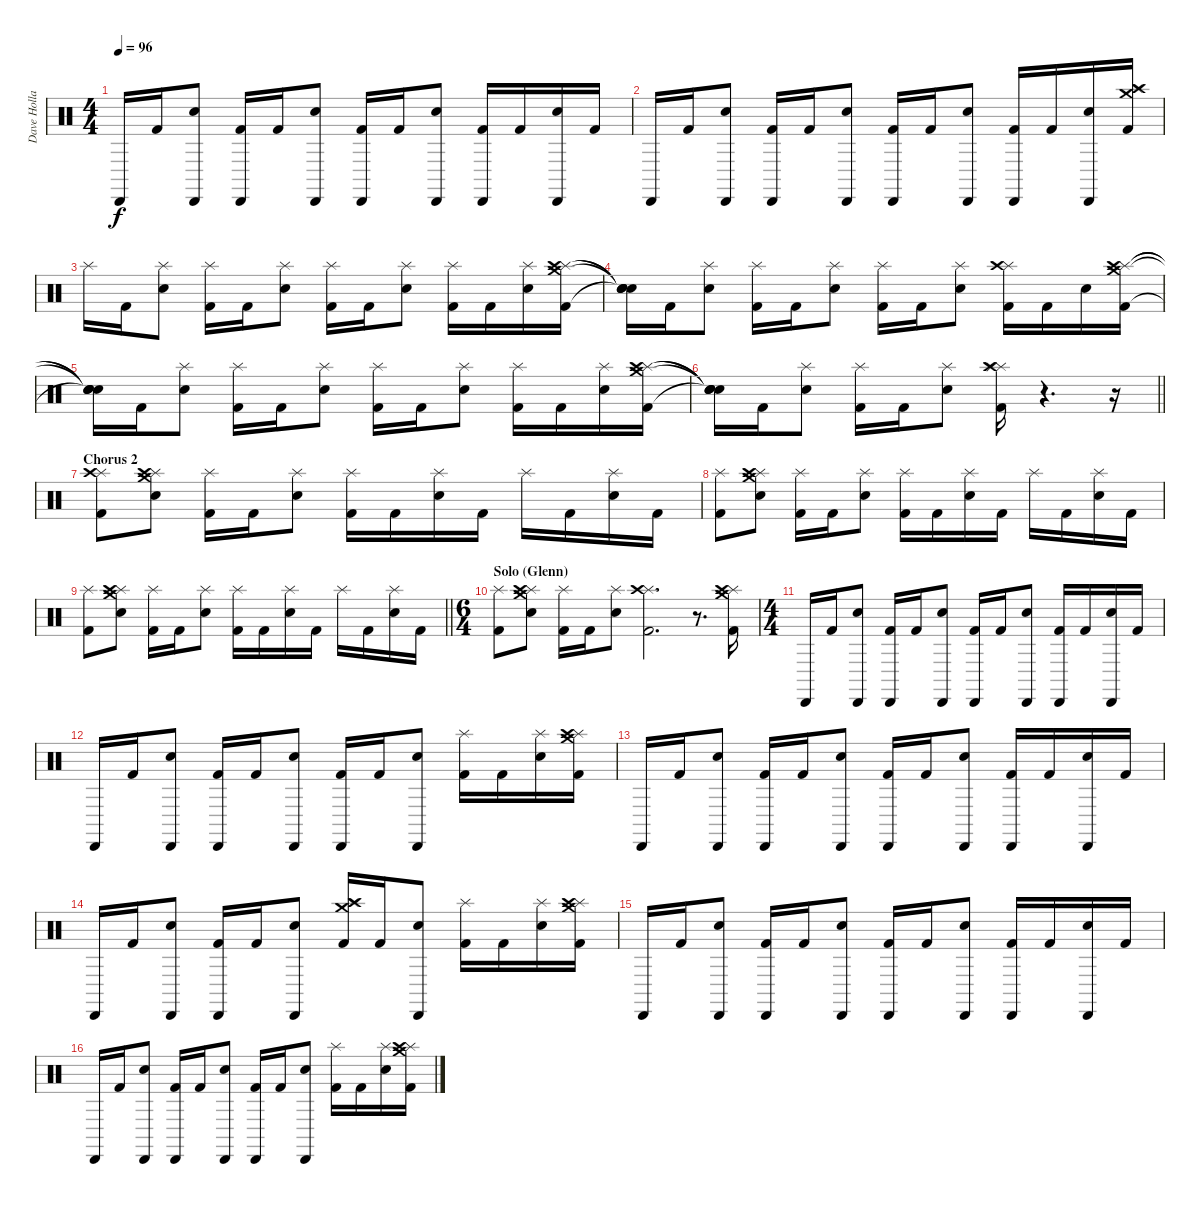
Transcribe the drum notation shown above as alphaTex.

\track ("Dave Holland" "Dave Holla") {instrument percussion}
\staff {score}
\articulation defaults
\ts (4 4)
\tempo 96
\clef neutral
\ks c "Cabasa (hit)".16{dy f} "Kick (hit) 2".16
("Cabasa (hit)" "Snare (hit) 2").8 ("Cabasa (hit)" "Kick (hit) 2").16 "Kick (hit) 2".16 ("Cabasa (hit)" "Snare (hit) 2").8 ("Cabasa (hit)" "Kick (hit) 2").16 "Kick (hit) 2".16 ("Cabasa (hit)" "Snare (hit) 2").8 ("Cabasa (hit)" "Kick (hit) 2").16 "Kick (hit) 2".16 ("Cabasa (hit)" "Snare (hit) 2").16 "Kick (hit) 2".16 |
"Cabasa (hit)".16 "Kick (hit) 2".16 ("Cabasa (hit)" "Snare (hit) 2").8 ("Cabasa (hit)" "Kick (hit) 2").16 "Kick (hit) 2".16 ("Cabasa (hit)" "Snare (hit) 2").8 ("Cabasa (hit)" "Kick (hit) 2").16 "Kick (hit) 2".16 ("Cabasa (hit)" "Snare (hit) 2").8 ("Cabasa (hit)" "Kick (hit) 2").16 "Kick (hit) 2".16 ("Cabasa (hit)" "Snare (hit) 2").16 ("Crash medium (hit)" "Splash (hit)" "Crash high (hit)" "Kick (hit) 2").16 |
"Splash (hit)".16 "Kick (hit) 2".16 ("Splash (hit)" "Snare (hit) 2").8 ("Splash (hit)" "Kick (hit) 2").16 "Kick (hit) 2".16 ("Splash (hit)" "Snare (hit) 2").8 ("Splash (hit)" "Kick (hit) 2").16 "Kick (hit) 2".16 ("Splash (hit)" "Snare (hit) 2").8 ("Splash (hit)" "Kick (hit) 2").16 "Kick (hit) 2".16 ("Splash (hit)" "Snare (hit) 2").16 ("Crash medium (hit)" "Splash (hit)" "Crash high (hit)" "Kick (hit) 2").16 |
("Snare (hit)"{t} "Snare (hit)"{t} "Snare (hit)"{t} "Snare (hit)"{t}).16 "Kick (hit) 2".16 ("Splash (hit)" "Snare (hit) 2").8 ("Splash (hit)" "Kick (hit) 2").16 "Kick (hit) 2".16 ("Splash (hit)" "Snare (hit) 2").8 ("Splash (hit)" "Kick (hit) 2").16 "Kick (hit) 2".16 ("Splash (hit)" "Snare (hit) 2").8 ("Splash (hit)" "Crash high (hit)" "Kick (hit) 2").16 "Kick (hit) 2".16 "Snare (hit) 2".16 ("Crash medium (hit)" "Splash (hit)" "Crash high (hit)" "Kick (hit) 2").16 |
("Snare (hit)"{t} "Snare (hit)"{t} "Snare (hit)"{t} "Snare (hit)"{t}).16 "Kick (hit) 2".16 ("Splash (hit)" "Snare (hit) 2").8 ("Splash (hit)" "Kick (hit) 2").16 "Kick (hit) 2".16 ("Splash (hit)" "Snare (hit) 2").8 ("Splash (hit)" "Kick (hit) 2").16 "Kick (hit) 2".16 ("Splash (hit)" "Snare (hit) 2").8 ("Splash (hit)" "Kick (hit) 2").16 "Kick (hit) 2".16 ("Splash (hit)" "Snare (hit) 2").16 ("Crash medium (hit)" "Splash (hit)" "Crash high (hit)" "Kick (hit) 2").16 |
\barLineRight lightlight
("Snare (hit)"{t} "Snare (hit)"{t} "Snare (hit)"{t} "Snare (hit)"{t}).16 "Kick (hit) 2".16 ("Splash (hit)" "Snare (hit) 2").8 ("Splash (hit)" "Kick (hit) 2").16 "Kick (hit) 2".16 ("Splash (hit)" "Snare (hit) 2").8 ("Splash (hit)" "Splash (hit)" "Crash high (hit)" "Kick (hit) 2").16 r.4{d} r.16 |
\section ("" "Chorus 2")
("Splash (hit)" "Crash high (hit)" "Kick (hit) 2").8 ("Crash medium (hit)" "Splash (hit)" "Crash high (hit)" "Snare (hit) 2").8 ("Splash (hit)" "Kick (hit) 2").16 "Kick (hit) 2".16 ("Splash (hit)" "Snare (hit) 2").8 ("Splash (hit)" "Kick (hit) 2").16 "Kick (hit) 2".16 ("Splash (hit)" "Snare (hit) 2").16 "Kick (hit) 2".16 "Splash (hit)".16 "Kick (hit) 2".16 ("Splash (hit)" "Snare (hit) 2").16 "Kick (hit) 2".16 |
("Splash (hit)" "Kick (hit) 2").8 ("Crash medium (hit)" "Splash (hit)" "Crash high (hit)" "Snare (hit) 2").8 ("Splash (hit)" "Kick (hit) 2").16 "Kick (hit) 2".16 ("Splash (hit)" "Snare (hit) 2").8 ("Splash (hit)" "Kick (hit) 2").16 "Kick (hit) 2".16 ("Splash (hit)" "Snare (hit) 2").16 "Kick (hit) 2".16 "Splash (hit)".16 "Kick (hit) 2".16 ("Splash (hit)" "Snare (hit) 2").16 "Kick (hit) 2".16 |
\barLineRight lightlight
("Splash (hit)" "Kick (hit) 2").8 ("Crash medium (hit)" "Splash (hit)" "Crash high (hit)" "Snare (hit) 2").8 ("Splash (hit)" "Kick (hit) 2").16 "Kick (hit) 2".16 ("Splash (hit)" "Snare (hit) 2").8 ("Splash (hit)" "Kick (hit) 2").16 "Kick (hit) 2".16 ("Splash (hit)" "Snare (hit) 2").16 "Kick (hit) 2".16 "Splash (hit)".16 "Kick (hit) 2".16 ("Splash (hit)" "Snare (hit) 2").16 "Kick (hit) 2".16 |
\ts (6 4)
\section ("" "Solo (Glenn)")
("Splash (hit)" "Kick (hit) 2").8 ("Crash medium (hit)" "Splash (hit)" "Crash high (hit)" "Snare (hit) 2").8 ("Splash (hit)" "Kick (hit) 2").16 "Kick (hit) 2".16 ("Splash (hit)" "Snare (hit) 2").8 ("Splash (hit)" "Crash high (hit)" "Kick (hit) 2").2{d} r.8{d} ("Crash medium (hit)" "Splash (hit)" "Crash high (hit)" "Kick (hit) 2").16 |
\ts (4 4)
"Cabasa (hit)".16 "Kick (hit) 2".16 ("Cabasa (hit)" "Snare (hit) 2").8 ("Cabasa (hit)" "Kick (hit) 2").16 "Kick (hit) 2".16 ("Cabasa (hit)" "Snare (hit) 2").8 ("Cabasa (hit)" "Kick (hit) 2").16 "Kick (hit) 2".16 ("Cabasa (hit)" "Snare (hit) 2").8 ("Cabasa (hit)" "Kick (hit) 2").16 "Kick (hit) 2".16 ("Cabasa (hit)" "Snare (hit) 2").16 "Kick (hit) 2".16 |
"Cabasa (hit)".16 "Kick (hit) 2".16 ("Cabasa (hit)" "Snare (hit) 2").8 ("Cabasa (hit)" "Kick (hit) 2").16 "Kick (hit) 2".16 ("Cabasa (hit)" "Snare (hit) 2").8 ("Cabasa (hit)" "Kick (hit) 2").16 "Kick (hit) 2".16 ("Cabasa (hit)" "Snare (hit) 2").8 ("Splash (hit)" "Kick (hit) 2").16 "Kick (hit) 2".16 ("Splash (hit)" "Snare (hit) 2").16 ("Crash medium (hit)" "Splash (hit)" "Crash high (hit)" "Kick (hit) 2").16 |
"Cabasa (hit)".16 "Kick (hit) 2".16 ("Cabasa (hit)" "Snare (hit) 2").8 ("Cabasa (hit)" "Kick (hit) 2").16 "Kick (hit) 2".16 ("Cabasa (hit)" "Snare (hit) 2").8 ("Cabasa (hit)" "Kick (hit) 2").16 "Kick (hit) 2".16 ("Cabasa (hit)" "Snare (hit) 2").8 ("Cabasa (hit)" "Kick (hit) 2").16 "Kick (hit) 2".16 ("Cabasa (hit)" "Snare (hit) 2").16 "Kick (hit) 2".16 |
"Cabasa (hit)".16 "Kick (hit) 2".16 ("Cabasa (hit)" "Snare (hit) 2").8 ("Cabasa (hit)" "Kick (hit) 2").16 "Kick (hit) 2".16 ("Cabasa (hit)" "Snare (hit) 2").8 ("Crash medium (hit)" "Splash (hit)" "Crash high (hit)" "Kick (hit) 2").16 "Kick (hit) 2".16 ("Cabasa (hit)" "Snare (hit) 2").8 ("Splash (hit)" "Kick (hit) 2").16 "Kick (hit) 2".16 ("Splash (hit)" "Snare (hit) 2").16 ("Crash medium (hit)" "Splash (hit)" "Crash high (hit)" "Kick (hit) 2").16 |
"Cabasa (hit)".16 "Kick (hit) 2".16 ("Cabasa (hit)" "Snare (hit) 2").8 ("Cabasa (hit)" "Kick (hit) 2").16 "Kick (hit) 2".16 ("Cabasa (hit)" "Snare (hit) 2").8 ("Cabasa (hit)" "Kick (hit) 2").16 "Kick (hit) 2".16 ("Cabasa (hit)" "Snare (hit) 2").8 ("Cabasa (hit)" "Kick (hit) 2").16 "Kick (hit) 2".16 ("Cabasa (hit)" "Snare (hit) 2").16 "Kick (hit) 2".16 |
"Cabasa (hit)".16 "Kick (hit) 2".16 ("Cabasa (hit)" "Snare (hit) 2").8 ("Cabasa (hit)" "Kick (hit) 2").16 "Kick (hit) 2".16 ("Cabasa (hit)" "Snare (hit) 2").8 ("Cabasa (hit)" "Kick (hit) 2").16 "Kick (hit) 2".16 ("Cabasa (hit)" "Snare (hit) 2").8 ("Splash (hit)" "Kick (hit) 2").16 "Kick (hit) 2".16 ("Splash (hit)" "Snare (hit) 2").16 ("Crash medium (hit)" "Splash (hit)" "Crash high (hit)" "Kick (hit) 2").16
